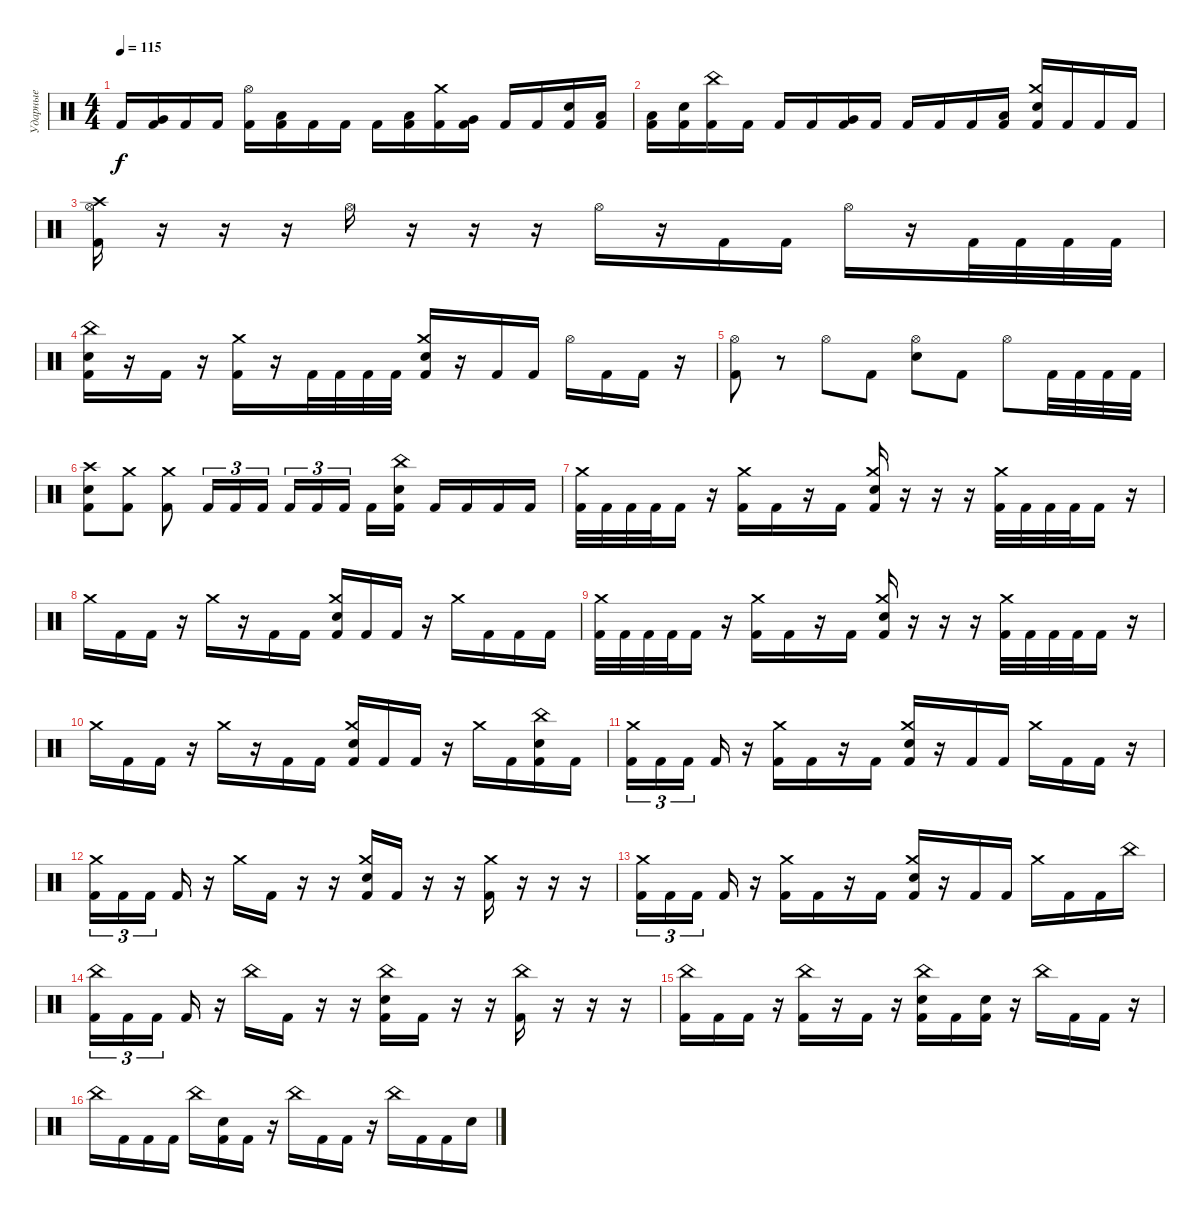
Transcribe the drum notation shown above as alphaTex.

\track ("Ударные" "Ударные") {instrument percussion}
\staff {score}
\articulation defaults
\ts (4 4)
\tempo 115
\clef neutral
\ks c "Kick (hit) 2".16{dy f}
("Very Low Tom (hit)" "Kick (hit) 2").16 "Kick (hit) 2".16 "Kick (hit) 2".16 ("Hi-Hat (open)" "Kick (hit) 2").16 ("Low Floor Tom (hit)" "Kick (hit) 2").16 "Kick (hit) 2".16 "Kick (hit) 2".16 "Kick (hit) 2".16 ("Low Tom (hit)" "Kick (hit) 2").16 ("Crash medium (hit)" "Kick (hit) 2").16 ("Very Low Tom (hit)" "Kick (hit) 2").16 "Kick (hit) 2".16 "Kick (hit) 2".16 ("Electric Snare (hit)" "Kick (hit) 2").16 ("Low Floor Tom (hit)" "Kick (hit) 2").16 |
("Low Floor Tom (hit)" "Kick (hit) 2").16 ("Electric Snare (hit)" "Kick (hit) 2").16 ("China (hit)" "Kick (hit) 2").16 "Kick (hit) 2".16 "Kick (hit) 2".16 "Kick (hit) 2".16 ("Very Low Tom (hit)" "Kick (hit) 2").16 "Kick (hit) 2".16 "Kick (hit) 2".16 "Kick (hit) 2".16 "Kick (hit) 2".16 ("Low Floor Tom (hit)" "Kick (hit) 2").16 ("Crash medium (hit)" "Electric Snare (hit)" "Kick (hit) 2").16 "Kick (hit) 2".16 "Kick (hit) 2".16 "Kick (hit) 2".16 |
("Crash high (hit)" "Hi-Hat (open)" "Kick (hit) 2").16 r.16 r.16 r.16 "Hi-Hat (open)".16 r.16 r.16 r.16 "Hi-Hat (open)".16 r.16 "Kick (hit) 2".16 "Kick (hit) 2".16 "Hi-Hat (open)".16 r.16 "Kick (hit) 2".32 "Kick (hit) 2".32 "Kick (hit) 2".32 "Kick (hit) 2".32 |
("China (hit)" "Electric Snare (hit)" "Kick (hit) 2").16 r.16 "Kick (hit) 2".16 r.16 ("Crash medium (hit)" "Kick (hit) 2").16 r.16 "Kick (hit) 2".32 "Kick (hit) 2".32 "Kick (hit) 2".32 "Kick (hit) 2".32 ("Crash medium (hit)" "Electric Snare (hit)" "Kick (hit) 2").16 r.16 "Kick (hit) 2".16 "Kick (hit) 2".16 "Hi-Hat (open)".16 "Kick (hit) 2".16 "Kick (hit) 2".16 r.16 |
("Hi-Hat (open)" "Kick (hit) 2").8 r.8 "Hi-Hat (open)".8 "Kick (hit) 2".8 ("Hi-Hat (open)" "Electric Snare (hit)").8 "Kick (hit) 2".8 "Hi-Hat (open)".8 "Kick (hit) 2".32 "Kick (hit) 2".32 "Kick (hit) 2".32 "Kick (hit) 2".32 |
("Crash high (hit)" "Electric Snare (hit)" "Kick (hit) 2").8 ("Crash medium (hit)" "Kick (hit) 2").8 ("Crash medium (hit)" "Kick (hit) 2").8 "Kick (hit) 2".16{tu (3 2)} "Kick (hit) 2".16{tu (3 2)} "Kick (hit) 2".16{tu (3 2)} "Kick (hit) 2".16{tu (3 2)} "Kick (hit) 2".16{tu (3 2)} "Kick (hit) 2".16{tu (3 2) beam splitsecondary} "Kick (hit) 2".16 ("China (hit)" "Electric Snare (hit)" "Kick (hit) 2").16 "Kick (hit) 2".16 "Kick (hit) 2".16 "Kick (hit) 2".16 "Kick (hit) 2".16 |
("Crash medium (hit)" "Kick (hit) 2").32 "Kick (hit) 2".32 "Kick (hit) 2".32 "Kick (hit) 2".32 "Kick (hit) 2".16 r.16 ("Crash medium (hit)" "Kick (hit) 2").16 "Kick (hit) 2".16 r.16 "Kick (hit) 2".16 ("Crash medium (hit)" "Electric Snare (hit)" "Kick (hit) 2").16 r.16 r.16 r.16 ("Crash medium (hit)" "Kick (hit) 2").32 "Kick (hit) 2".32 "Kick (hit) 2".32 "Kick (hit) 2".32 "Kick (hit) 2".16 r.16 |
"Crash medium (hit)".16 "Kick (hit) 2".16 "Kick (hit) 2".16 r.16 "Crash medium (hit)".16 r.16 "Kick (hit) 2".16 "Kick (hit) 2".16 ("Crash medium (hit)" "Electric Snare (hit)" "Kick (hit) 2").16 "Kick (hit) 2".16 "Kick (hit) 2".16 r.16 "Crash medium (hit)".16 "Kick (hit) 2".16 "Kick (hit) 2".16 "Kick (hit) 2".16 |
("Crash medium (hit)" "Kick (hit) 2").32 "Kick (hit) 2".32 "Kick (hit) 2".32 "Kick (hit) 2".32 "Kick (hit) 2".16 r.16 ("Crash medium (hit)" "Kick (hit) 2").16 "Kick (hit) 2".16 r.16 "Kick (hit) 2".16 ("Crash medium (hit)" "Electric Snare (hit)" "Kick (hit) 2").16 r.16 r.16 r.16 ("Crash medium (hit)" "Kick (hit) 2").32 "Kick (hit) 2".32 "Kick (hit) 2".32 "Kick (hit) 2".32 "Kick (hit) 2".16 r.16 |
"Crash medium (hit)".16 "Kick (hit) 2".16 "Kick (hit) 2".16 r.16 "Crash medium (hit)".16 r.16 "Kick (hit) 2".16 "Kick (hit) 2".16 ("Crash medium (hit)" "Electric Snare (hit)" "Kick (hit) 2").16 "Kick (hit) 2".16 "Kick (hit) 2".16 r.16 "Crash medium (hit)".16 "Kick (hit) 2".16 ("China (hit)" "Electric Snare (hit)" "Kick (hit) 2").16 "Kick (hit) 2".16 |
("Crash medium (hit)" "Kick (hit) 2").16{tu (3 2)} "Kick (hit) 2".16{tu (3 2)} "Kick (hit) 2".16{tu (3 2) beam splitsecondary} "Kick (hit) 2".16 r.16 ("Crash medium (hit)" "Kick (hit) 2").16 "Kick (hit) 2".16 r.16 "Kick (hit) 2".16 ("Crash medium (hit)" "Electric Snare (hit)" "Kick (hit) 2").16 r.16 "Kick (hit) 2".16 "Kick (hit) 2".16 "Crash medium (hit)".16 "Kick (hit) 2".16 "Kick (hit) 2".16 r.16 |
("Crash medium (hit)" "Kick (hit) 2").16{tu (3 2)} "Kick (hit) 2".16{tu (3 2)} "Kick (hit) 2".16{tu (3 2) beam splitsecondary} "Kick (hit) 2".16 r.16 "Crash medium (hit)".16 "Kick (hit) 2".16 r.16 r.16 ("Crash medium (hit)" "Electric Snare (hit)" "Kick (hit) 2").16 "Kick (hit) 2".16 r.16 r.16 ("Crash medium (hit)" "Kick (hit) 2").16 r.16 r.16 r.16 |
("Crash medium (hit)" "Kick (hit) 2").16{tu (3 2)} "Kick (hit) 2".16{tu (3 2)} "Kick (hit) 2".16{tu (3 2) beam splitsecondary} "Kick (hit) 2".16 r.16 ("Crash medium (hit)" "Kick (hit) 2").16 "Kick (hit) 2".16 r.16 "Kick (hit) 2".16 ("Crash medium (hit)" "Electric Snare (hit)" "Kick (hit) 2").16 r.16 "Kick (hit) 2".16 "Kick (hit) 2".16 "Crash medium (hit)".16 "Kick (hit) 2".16 "Kick (hit) 2".16 "China (hit)".16 |
("China (hit)" "Kick (hit) 2").16{tu (3 2)} "Kick (hit) 2".16{tu (3 2)} "Kick (hit) 2".16{tu (3 2) beam splitsecondary} "Kick (hit) 2".16 r.16 "China (hit)".16 "Kick (hit) 2".16 r.16 r.16 ("China (hit)" "Electric Snare (hit)" "Kick (hit) 2").16 "Kick (hit) 2".16 r.16 r.16 ("China (hit)" "Kick (hit) 2").16 r.16 r.16 r.16 |
("China (hit)" "Kick (hit) 2").16 "Kick (hit) 2".16 "Kick (hit) 2".16 r.16 ("China (hit)" "Kick (hit) 2").16 r.16 "Kick (hit) 2".16 r.16 ("China (hit)" "Electric Snare (hit)" "Kick (hit) 2").16 "Kick (hit) 2".16 ("Electric Snare (hit)" "Kick (hit) 2").16 r.16 "China (hit)".16 "Kick (hit) 2".16 "Kick (hit) 2".16 r.16 |
"China (hit)".16 "Kick (hit) 2".16 "Kick (hit) 2".16 "Kick (hit) 2".16 "China (hit)".16 ("Electric Snare (hit)" "Kick (hit) 2").16 "Kick (hit) 2".16 r.16 "China (hit)".16 "Kick (hit) 2".16 "Kick (hit) 2".16 r.16 "China (hit)".16 "Kick (hit) 2".16 "Kick (hit) 2".16 "Electric Snare (hit)".16
